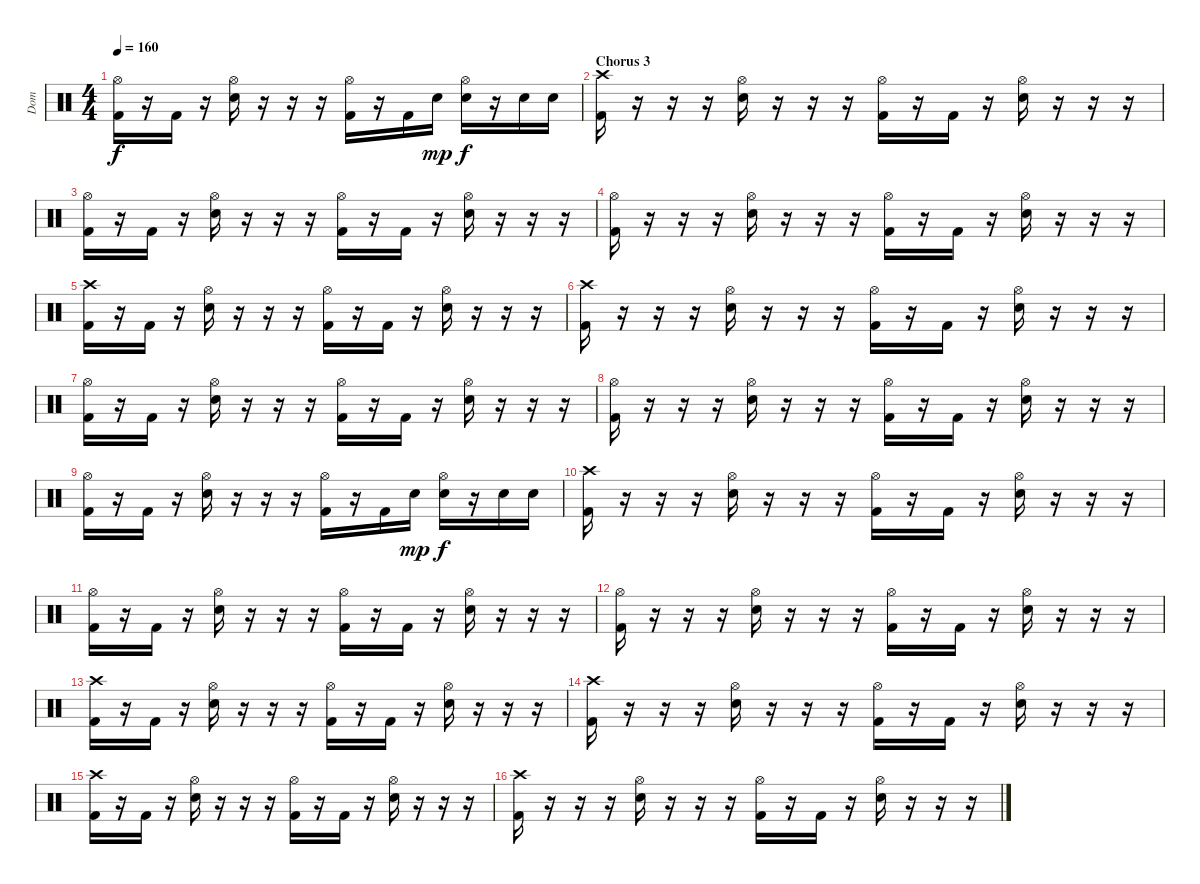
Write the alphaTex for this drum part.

\track ("Dom" "Dom") {instrument percussion}
\staff {score}
\articulation defaults
\ts (4 4)
\tempo 160
\clef neutral
\ks c
("Hi-Hat (open)" "Kick (hit) 2").16{dy f} r.16 "Kick (hit) 2".16 r.16 ("Hi-Hat (open)" "Electric Snare (hit)").16 r.16 r.16 r.16 ("Hi-Hat (open)" "Kick (hit) 2").16 r.16 "Kick (hit) 2".16 "Electric Snare (hit)".16{dy mp} ("Hi-Hat (open)" "Electric Snare (hit)").16{dy f} r.16 "Electric Snare (hit)".16 "Electric Snare (hit)".16 |
\section ("" "Chorus 3")
("Crash high (hit)" "Kick (hit) 2").16 r.16 r.16 r.16 ("Hi-Hat (open)" "Electric Snare (hit)").16 r.16 r.16 r.16 ("Hi-Hat (open)" "Kick (hit) 2").16 r.16 "Kick (hit) 2".16 r.16 ("Hi-Hat (open)" "Electric Snare (hit)").16 r.16 r.16 r.16 |
("Hi-Hat (open)" "Kick (hit) 2").16 r.16 "Kick (hit) 2".16 r.16 ("Hi-Hat (open)" "Electric Snare (hit)").16 r.16 r.16 r.16 ("Hi-Hat (open)" "Kick (hit) 2").16 r.16 "Kick (hit) 2".16 r.16 ("Hi-Hat (open)" "Electric Snare (hit)").16 r.16 r.16 r.16 |
("Hi-Hat (open)" "Kick (hit) 2").16 r.16 r.16 r.16 ("Hi-Hat (open)" "Electric Snare (hit)").16 r.16 r.16 r.16 ("Hi-Hat (open)" "Kick (hit) 2").16 r.16 "Kick (hit) 2".16 r.16 ("Hi-Hat (open)" "Electric Snare (hit)").16 r.16 r.16 r.16 |
("Crash high (hit)" "Kick (hit) 2").16 r.16 "Kick (hit) 2".16 r.16 ("Hi-Hat (open)" "Electric Snare (hit)").16 r.16 r.16 r.16 ("Hi-Hat (open)" "Kick (hit) 2").16 r.16 "Kick (hit) 2".16 r.16 ("Hi-Hat (open)" "Electric Snare (hit)").16 r.16 r.16 r.16 |
("Crash high (hit)" "Kick (hit) 2").16 r.16 r.16 r.16 ("Hi-Hat (open)" "Electric Snare (hit)").16 r.16 r.16 r.16 ("Hi-Hat (open)" "Kick (hit) 2").16 r.16 "Kick (hit) 2".16 r.16 ("Hi-Hat (open)" "Electric Snare (hit)").16 r.16 r.16 r.16 |
("Hi-Hat (open)" "Kick (hit) 2").16 r.16 "Kick (hit) 2".16 r.16 ("Hi-Hat (open)" "Electric Snare (hit)").16 r.16 r.16 r.16 ("Hi-Hat (open)" "Kick (hit) 2").16 r.16 "Kick (hit) 2".16 r.16 ("Hi-Hat (open)" "Electric Snare (hit)").16 r.16 r.16 r.16 |
("Hi-Hat (open)" "Kick (hit) 2").16 r.16 r.16 r.16 ("Hi-Hat (open)" "Electric Snare (hit)").16 r.16 r.16 r.16 ("Hi-Hat (open)" "Kick (hit) 2").16 r.16 "Kick (hit) 2".16 r.16 ("Hi-Hat (open)" "Electric Snare (hit)").16 r.16 r.16 r.16 |
("Hi-Hat (open)" "Kick (hit) 2").16 r.16 "Kick (hit) 2".16 r.16 ("Hi-Hat (open)" "Electric Snare (hit)").16 r.16 r.16 r.16 ("Hi-Hat (open)" "Kick (hit) 2").16 r.16 "Kick (hit) 2".16 "Electric Snare (hit)".16{dy mp} ("Hi-Hat (open)" "Electric Snare (hit)").16{dy f} r.16 "Electric Snare (hit)".16 "Electric Snare (hit)".16 |
("Crash high (hit)" "Kick (hit) 2").16 r.16 r.16 r.16 ("Hi-Hat (open)" "Electric Snare (hit)").16 r.16 r.16 r.16 ("Hi-Hat (open)" "Kick (hit) 2").16 r.16 "Kick (hit) 2".16 r.16 ("Hi-Hat (open)" "Electric Snare (hit)").16 r.16 r.16 r.16 |
("Hi-Hat (open)" "Kick (hit) 2").16 r.16 "Kick (hit) 2".16 r.16 ("Hi-Hat (open)" "Electric Snare (hit)").16 r.16 r.16 r.16 ("Hi-Hat (open)" "Kick (hit) 2").16 r.16 "Kick (hit) 2".16 r.16 ("Hi-Hat (open)" "Electric Snare (hit)").16 r.16 r.16 r.16 |
("Hi-Hat (open)" "Kick (hit) 2").16 r.16 r.16 r.16 ("Hi-Hat (open)" "Electric Snare (hit)").16 r.16 r.16 r.16 ("Hi-Hat (open)" "Kick (hit) 2").16 r.16 "Kick (hit) 2".16 r.16 ("Hi-Hat (open)" "Electric Snare (hit)").16 r.16 r.16 r.16 |
("Crash high (hit)" "Kick (hit) 2").16 r.16 "Kick (hit) 2".16 r.16 ("Hi-Hat (open)" "Electric Snare (hit)").16 r.16 r.16 r.16 ("Hi-Hat (open)" "Kick (hit) 2").16 r.16 "Kick (hit) 2".16 r.16 ("Hi-Hat (open)" "Electric Snare (hit)").16 r.16 r.16 r.16 |
("Crash high (hit)" "Kick (hit) 2").16 r.16 r.16 r.16 ("Hi-Hat (open)" "Electric Snare (hit)").16 r.16 r.16 r.16 ("Hi-Hat (open)" "Kick (hit) 2").16 r.16 "Kick (hit) 2".16 r.16 ("Hi-Hat (open)" "Electric Snare (hit)").16 r.16 r.16 r.16 |
("Crash high (hit)" "Kick (hit) 2").16 r.16 "Kick (hit) 2".16 r.16 ("Hi-Hat (open)" "Electric Snare (hit)").16 r.16 r.16 r.16 ("Hi-Hat (open)" "Kick (hit) 2").16 r.16 "Kick (hit) 2".16 r.16 ("Hi-Hat (open)" "Electric Snare (hit)").16 r.16 r.16 r.16 |
("Crash high (hit)" "Kick (hit) 2").16 r.16 r.16 r.16 ("Hi-Hat (open)" "Electric Snare (hit)").16 r.16 r.16 r.16 ("Hi-Hat (open)" "Kick (hit) 2").16 r.16 "Kick (hit) 2".16 r.16 ("Hi-Hat (open)" "Electric Snare (hit)").16 r.16 r.16 r.16
